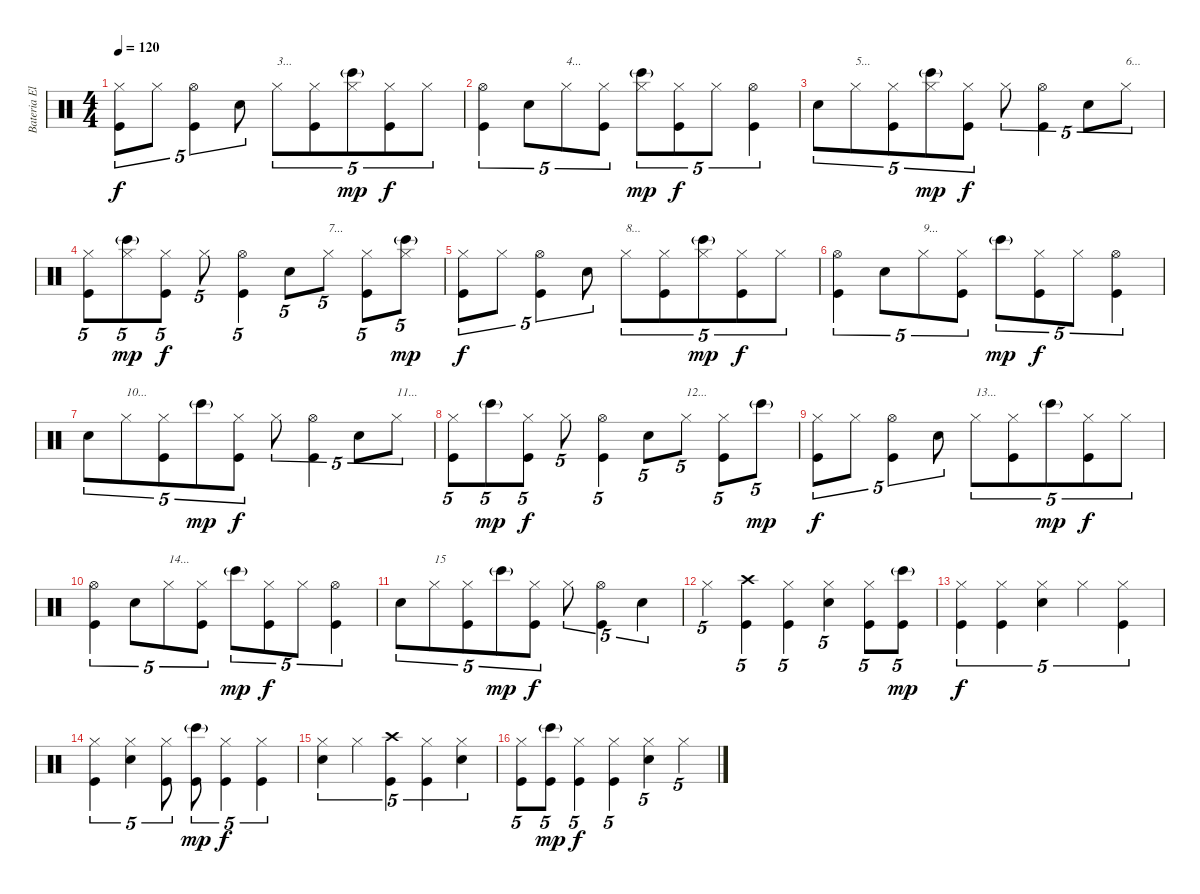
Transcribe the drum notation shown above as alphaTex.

\track ("Bateria Eletrônica" "Bateria El") {instrument percussion}
\staff {score}
\articulation defaults
\ts (4 4)
\tempo 120
\clef neutral
\ks c
("Kick (hit)" "Hi-Hat (closed)").8{tu (5 4) dy f} "Hi-Hat (closed)".8{tu (5 4)} ("Kick (hit)" "Hi-Hat (open)").4{tu (5 4)} "Snare (hit) 2".8{tu (5 4)} "Hi-Hat (closed)".8{tu (5 4) txt "3..."} ("Kick (hit)" "Hi-Hat (closed)").8{tu (5 4)} ("Bongo High (hit)"{g} "Hi-Hat (closed)").8{tu (5 4) dy mp} ("Kick (hit)" "Hi-Hat (closed)").8{tu (5 4) dy f} "Hi-Hat (closed)".8{tu (5 4)} |
("Kick (hit)" "Hi-Hat (open)").4{tu (5 4)} "Snare (hit) 2".8{tu (5 4)} "Hi-Hat (closed)".8{tu (5 4) txt "4..."} ("Kick (hit)" "Hi-Hat (closed)").8{tu (5 4)} ("Bongo High (hit)"{g} "Hi-Hat (closed)").8{tu (5 4) dy mp} ("Kick (hit)" "Hi-Hat (closed)").8{tu (5 4) dy f} "Hi-Hat (closed)".8{tu (5 4)} ("Kick (hit)" "Hi-Hat (open)").4{tu (5 4)} |
"Snare (hit) 2".8{tu (5 4)} "Hi-Hat (closed)".8{tu (5 4) txt "5..."} ("Kick (hit)" "Hi-Hat (closed)").8{tu (5 4)} ("Bongo High (hit)"{g} "Hi-Hat (closed)").8{tu (5 4) dy mp} ("Kick (hit)" "Hi-Hat (closed)").8{tu (5 4) dy f} "Hi-Hat (closed)".8{tu (5 4)} ("Kick (hit)" "Hi-Hat (open)").4{tu (5 4)} "Snare (hit) 2".8{tu (5 4)} "Hi-Hat (closed)".8{tu (5 4) txt "6..."} |
("Kick (hit)" "Hi-Hat (closed)").8{tu (5 4)} ("Bongo High (hit)"{g} "Hi-Hat (closed)").8{tu (5 4) dy mp} ("Kick (hit)" "Hi-Hat (closed)").8{tu (5 4) dy f} "Hi-Hat (closed)".8{tu (5 4)} ("Kick (hit)" "Hi-Hat (open)").4{tu (5 4)} "Snare (hit) 2".8{tu (5 4)} "Hi-Hat (closed)".8{tu (5 4) txt "7..."} ("Kick (hit)" "Hi-Hat (closed)").8{tu (5 4)} ("Bongo High (hit)"{g} "Hi-Hat (closed)").8{tu (5 4) dy mp} |
("Kick (hit)" "Hi-Hat (closed)").8{tu (5 4) dy f} "Hi-Hat (closed)".8{tu (5 4)} ("Kick (hit)" "Hi-Hat (open)").4{tu (5 4)} "Snare (hit) 2".8{tu (5 4)} "Hi-Hat (closed)".8{tu (5 4) txt "8..."} ("Kick (hit)" "Hi-Hat (closed)").8{tu (5 4)} ("Bongo High (hit)"{g} "Hi-Hat (closed)").8{tu (5 4) dy mp} ("Kick (hit)" "Hi-Hat (closed)").8{tu (5 4) dy f} "Hi-Hat (closed)".8{tu (5 4)} |
("Kick (hit)" "Hi-Hat (open)").4{tu (5 4)} "Snare (hit) 2".8{tu (5 4)} "Hi-Hat (closed)".8{tu (5 4) txt "9..."} ("Kick (hit)" "Hi-Hat (closed)").8{tu (5 4)} "Bongo High (hit)"{g}.8{tu (5 4) dy mp} ("Kick (hit)" "Hi-Hat (closed)").8{tu (5 4) dy f} "Hi-Hat (closed)".8{tu (5 4)} ("Kick (hit)" "Hi-Hat (open)").4{tu (5 4)} |
"Snare (hit) 2".8{tu (5 4)} "Hi-Hat (closed)".8{tu (5 4) txt "10..."} ("Kick (hit)" "Hi-Hat (closed)").8{tu (5 4)} "Bongo High (hit)"{g}.8{tu (5 4) dy mp} ("Kick (hit)" "Hi-Hat (closed)").8{tu (5 4) dy f} "Hi-Hat (closed)".8{tu (5 4)} ("Kick (hit)" "Hi-Hat (open)").4{tu (5 4)} "Snare (hit) 2".8{tu (5 4)} "Hi-Hat (closed)".8{tu (5 4) txt "11..."} |
("Kick (hit)" "Hi-Hat (closed)").8{tu (5 4)} "Bongo High (hit)"{g}.8{tu (5 4) dy mp} ("Kick (hit)" "Hi-Hat (closed)").8{tu (5 4) dy f} "Hi-Hat (closed)".8{tu (5 4)} ("Kick (hit)" "Hi-Hat (open)").4{tu (5 4)} "Snare (hit) 2".8{tu (5 4)} "Hi-Hat (closed)".8{tu (5 4) txt "12..."} ("Kick (hit)" "Hi-Hat (closed)").8{tu (5 4)} "Bongo High (hit)"{g}.8{tu (5 4) dy mp} |
("Kick (hit)" "Hi-Hat (closed)").8{tu (5 4) dy f} "Hi-Hat (closed)".8{tu (5 4)} ("Kick (hit)" "Hi-Hat (open)").4{tu (5 4)} "Snare (hit) 2".8{tu (5 4)} "Hi-Hat (closed)".8{tu (5 4) txt "13..."} ("Kick (hit)" "Hi-Hat (closed)").8{tu (5 4)} "Bongo High (hit)"{g}.8{tu (5 4) dy mp} ("Kick (hit)" "Hi-Hat (closed)").8{tu (5 4) dy f} "Hi-Hat (closed)".8{tu (5 4)} |
("Kick (hit)" "Hi-Hat (open)").4{tu (5 4)} "Snare (hit) 2".8{tu (5 4)} "Hi-Hat (closed)".8{tu (5 4) txt "14..."} ("Kick (hit)" "Hi-Hat (closed)").8{tu (5 4)} "Bongo High (hit)"{g}.8{tu (5 4) dy mp} ("Kick (hit)" "Hi-Hat (closed)").8{tu (5 4) dy f} "Hi-Hat (closed)".8{tu (5 4)} ("Kick (hit)" "Hi-Hat (open)").4{tu (5 4)} |
"Snare (hit) 2".8{tu (5 4)} "Hi-Hat (closed)".8{tu (5 4) txt "15"} ("Kick (hit)" "Hi-Hat (closed)").8{tu (5 4)} "Bongo High (hit)"{g}.8{tu (5 4) dy mp} ("Kick (hit)" "Hi-Hat (closed)").8{tu (5 4) dy f} "Hi-Hat (closed)".8{tu (5 4)} ("Kick (hit)" "Hi-Hat (open)").4{tu (5 4)} "Snare (hit) 2".4{tu (5 4)} |
"Hi-Hat (closed)".4{tu (5 4)} ("Kick (hit)" "Crash high (hit)").4{tu (5 4)} ("Kick (hit)" "Hi-Hat (closed)").4{tu (5 4)} ("Snare (hit) 2" "Hi-Hat (closed)").4{tu (5 4)} ("Kick (hit)" "Hi-Hat (closed)").8{tu (5 4)} ("Kick (hit)" "Bongo High (hit)"{g}).8{tu (5 4) dy mp} |
("Kick (hit)" "Hi-Hat (closed)").4{tu (5 4) dy f} ("Kick (hit)" "Hi-Hat (closed)").4{tu (5 4)} ("Snare (hit) 2" "Hi-Hat (closed)").4{tu (5 4)} "Hi-Hat (closed)".4{tu (5 4)} ("Kick (hit)" "Hi-Hat (closed)").4{tu (5 4)} |
("Kick (hit)" "Hi-Hat (closed)").4{tu (5 4)} ("Snare (hit) 2" "Hi-Hat (closed)").4{tu (5 4)} ("Kick (hit)" "Hi-Hat (closed)").8{tu (5 4)} ("Kick (hit)" "Bongo High (hit)"{g}).8{tu (5 4) dy mp} ("Kick (hit)" "Hi-Hat (closed)").4{tu (5 4) dy f} ("Kick (hit)" "Hi-Hat (closed)").4{tu (5 4)} |
("Snare (hit) 2" "Hi-Hat (closed)").4{tu (5 4)} "Hi-Hat (closed)".4{tu (5 4)} ("Kick (hit)" "Crash high (hit)").4{tu (5 4)} ("Kick (hit)" "Hi-Hat (closed)").4{tu (5 4)} ("Snare (hit) 2" "Hi-Hat (closed)").4{tu (5 4)} |
("Kick (hit)" "Hi-Hat (closed)").8{tu (5 4)} ("Kick (hit)" "Bongo High (hit)"{g}).8{tu (5 4) dy mp} ("Kick (hit)" "Hi-Hat (closed)").4{tu (5 4) dy f} ("Kick (hit)" "Hi-Hat (closed)").4{tu (5 4)} ("Snare (hit) 2" "Hi-Hat (closed)").4{tu (5 4)} "Hi-Hat (closed)".4{tu (5 4)}
